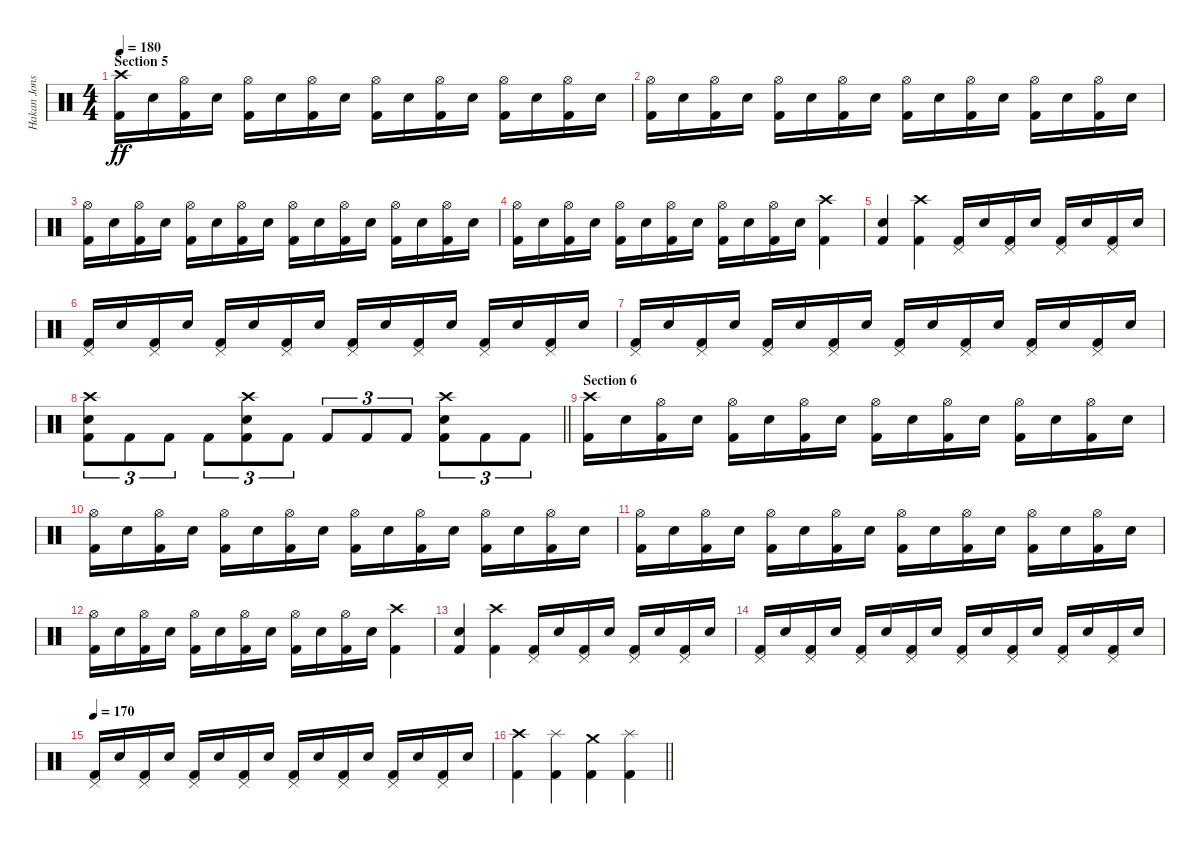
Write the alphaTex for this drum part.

\track ("Hakan Jonsson" "Hakan Jons") {instrument percussion}
\staff {score}
\articulation defaults
\ts (4 4)
\section ("" "Section 5")
\tempo 180
\clef neutral
\ks c
("Crash high (hit)" "Kick (hit) 2").16{dy ff} "Electric Snare (hit)".16 ("Hi-Hat (open)" "Kick (hit) 2").16 "Electric Snare (hit)".16 ("Hi-Hat (open)" "Kick (hit) 2").16 "Electric Snare (hit)".16 ("Hi-Hat (open)" "Kick (hit) 2").16 "Electric Snare (hit)".16 ("Hi-Hat (open)" "Kick (hit) 2").16 "Electric Snare (hit)".16 ("Hi-Hat (open)" "Kick (hit) 2").16 "Electric Snare (hit)".16 ("Hi-Hat (open)" "Kick (hit) 2").16 "Electric Snare (hit)".16 ("Hi-Hat (open)" "Kick (hit) 2").16 "Electric Snare (hit)".16 |
("Hi-Hat (open)" "Kick (hit) 2").16 "Electric Snare (hit)".16 ("Hi-Hat (open)" "Kick (hit) 2").16 "Electric Snare (hit)".16 ("Hi-Hat (open)" "Kick (hit) 2").16 "Electric Snare (hit)".16 ("Hi-Hat (open)" "Kick (hit) 2").16 "Electric Snare (hit)".16 ("Hi-Hat (open)" "Kick (hit) 2").16 "Electric Snare (hit)".16 ("Hi-Hat (open)" "Kick (hit) 2").16 "Electric Snare (hit)".16 ("Hi-Hat (open)" "Kick (hit) 2").16 "Electric Snare (hit)".16 ("Hi-Hat (open)" "Kick (hit) 2").16 "Electric Snare (hit)".16 |
("Hi-Hat (open)" "Kick (hit) 2").16 "Electric Snare (hit)".16 ("Hi-Hat (open)" "Kick (hit) 2").16 "Electric Snare (hit)".16 ("Hi-Hat (open)" "Kick (hit) 2").16 "Electric Snare (hit)".16 ("Hi-Hat (open)" "Kick (hit) 2").16 "Electric Snare (hit)".16 ("Hi-Hat (open)" "Kick (hit) 2").16 "Electric Snare (hit)".16 ("Hi-Hat (open)" "Kick (hit) 2").16 "Electric Snare (hit)".16 ("Hi-Hat (open)" "Kick (hit) 2").16 "Electric Snare (hit)".16 ("Hi-Hat (open)" "Kick (hit) 2").16 "Electric Snare (hit)".16 |
("Hi-Hat (open)" "Kick (hit) 2").16 "Electric Snare (hit)".16 ("Hi-Hat (open)" "Kick (hit) 2").16 "Electric Snare (hit)".16 ("Hi-Hat (open)" "Kick (hit) 2").16 "Electric Snare (hit)".16 ("Hi-Hat (open)" "Kick (hit) 2").16 "Electric Snare (hit)".16 ("Hi-Hat (open)" "Kick (hit) 2").16 "Electric Snare (hit)".16 ("Hi-Hat (open)" "Kick (hit) 2").16 "Electric Snare (hit)".16 ("Crash high (hit)" "Kick (hit) 2").4 |
("Electric Snare (hit)" "Kick (hit) 2").4 ("Crash high (hit)" "Kick (hit) 2").4 ("Pedal Hi-Hat (hit)" "Kick (hit) 2").16 "Electric Snare (hit)".16 ("Pedal Hi-Hat (hit)" "Kick (hit) 2").16 "Electric Snare (hit)".16 ("Pedal Hi-Hat (hit)" "Kick (hit) 2").16 "Electric Snare (hit)".16 ("Pedal Hi-Hat (hit)" "Kick (hit) 2").16 "Electric Snare (hit)".16 |
("Pedal Hi-Hat (hit)" "Kick (hit) 2").16 "Electric Snare (hit)".16 ("Pedal Hi-Hat (hit)" "Kick (hit) 2").16 "Electric Snare (hit)".16 ("Pedal Hi-Hat (hit)" "Kick (hit) 2").16 "Electric Snare (hit)".16 ("Pedal Hi-Hat (hit)" "Kick (hit) 2").16 "Electric Snare (hit)".16 ("Pedal Hi-Hat (hit)" "Kick (hit) 2").16 "Electric Snare (hit)".16 ("Pedal Hi-Hat (hit)" "Kick (hit) 2").16 "Electric Snare (hit)".16 ("Pedal Hi-Hat (hit)" "Kick (hit) 2").16 "Electric Snare (hit)".16 ("Pedal Hi-Hat (hit)" "Kick (hit) 2").16 "Electric Snare (hit)".16 |
("Pedal Hi-Hat (hit)" "Kick (hit) 2").16 "Electric Snare (hit)".16 ("Pedal Hi-Hat (hit)" "Kick (hit) 2").16 "Electric Snare (hit)".16 ("Pedal Hi-Hat (hit)" "Kick (hit) 2").16 "Electric Snare (hit)".16 ("Pedal Hi-Hat (hit)" "Kick (hit) 2").16 "Electric Snare (hit)".16 ("Pedal Hi-Hat (hit)" "Kick (hit) 2").16 "Electric Snare (hit)".16 ("Pedal Hi-Hat (hit)" "Kick (hit) 2").16 "Electric Snare (hit)".16 ("Pedal Hi-Hat (hit)" "Kick (hit) 2").16 "Electric Snare (hit)".16 ("Pedal Hi-Hat (hit)" "Kick (hit) 2").16 "Electric Snare (hit)".16 |
\barLineRight lightlight
("Crash high (hit)" "Electric Snare (hit)" "Kick (hit) 2").8{tu (3 2)} "Kick (hit) 2".8{tu (3 2)} "Kick (hit) 2".8{tu (3 2)} "Kick (hit) 2".8{tu (3 2)} ("Crash high (hit)" "Electric Snare (hit)" "Kick (hit) 2").8{tu (3 2)} "Kick (hit) 2".8{tu (3 2)} "Kick (hit) 2".8{tu (3 2)} "Kick (hit) 2".8{tu (3 2)} "Kick (hit) 2".8{tu (3 2)} ("Crash high (hit)" "Electric Snare (hit)" "Kick (hit) 2").8{tu (3 2)} "Kick (hit) 2".8{tu (3 2)} "Kick (hit) 2".8{tu (3 2)} |
\section ("" "Section 6")
("Crash high (hit)" "Kick (hit) 2").16 "Electric Snare (hit)".16 ("Hi-Hat (open)" "Kick (hit) 2").16 "Electric Snare (hit)".16 ("Hi-Hat (open)" "Kick (hit) 2").16 "Electric Snare (hit)".16 ("Hi-Hat (open)" "Kick (hit) 2").16 "Electric Snare (hit)".16 ("Hi-Hat (open)" "Kick (hit) 2").16 "Electric Snare (hit)".16 ("Hi-Hat (open)" "Kick (hit) 2").16 "Electric Snare (hit)".16 ("Hi-Hat (open)" "Kick (hit) 2").16 "Electric Snare (hit)".16 ("Hi-Hat (open)" "Kick (hit) 2").16 "Electric Snare (hit)".16 |
("Hi-Hat (open)" "Kick (hit) 2").16 "Electric Snare (hit)".16 ("Hi-Hat (open)" "Kick (hit) 2").16 "Electric Snare (hit)".16 ("Hi-Hat (open)" "Kick (hit) 2").16 "Electric Snare (hit)".16 ("Hi-Hat (open)" "Kick (hit) 2").16 "Electric Snare (hit)".16 ("Hi-Hat (open)" "Kick (hit) 2").16 "Electric Snare (hit)".16 ("Hi-Hat (open)" "Kick (hit) 2").16 "Electric Snare (hit)".16 ("Hi-Hat (open)" "Kick (hit) 2").16 "Electric Snare (hit)".16 ("Hi-Hat (open)" "Kick (hit) 2").16 "Electric Snare (hit)".16 |
("Hi-Hat (open)" "Kick (hit) 2").16 "Electric Snare (hit)".16 ("Hi-Hat (open)" "Kick (hit) 2").16 "Electric Snare (hit)".16 ("Hi-Hat (open)" "Kick (hit) 2").16 "Electric Snare (hit)".16 ("Hi-Hat (open)" "Kick (hit) 2").16 "Electric Snare (hit)".16 ("Hi-Hat (open)" "Kick (hit) 2").16 "Electric Snare (hit)".16 ("Hi-Hat (open)" "Kick (hit) 2").16 "Electric Snare (hit)".16 ("Hi-Hat (open)" "Kick (hit) 2").16 "Electric Snare (hit)".16 ("Hi-Hat (open)" "Kick (hit) 2").16 "Electric Snare (hit)".16 |
("Hi-Hat (open)" "Kick (hit) 2").16 "Electric Snare (hit)".16 ("Hi-Hat (open)" "Kick (hit) 2").16 "Electric Snare (hit)".16 ("Hi-Hat (open)" "Kick (hit) 2").16 "Electric Snare (hit)".16 ("Hi-Hat (open)" "Kick (hit) 2").16 "Electric Snare (hit)".16 ("Hi-Hat (open)" "Kick (hit) 2").16 "Electric Snare (hit)".16 ("Hi-Hat (open)" "Kick (hit) 2").16 "Electric Snare (hit)".16 ("Crash high (hit)" "Kick (hit) 2").4 |
("Electric Snare (hit)" "Kick (hit) 2").4 ("Crash high (hit)" "Kick (hit) 2").4 ("Pedal Hi-Hat (hit)" "Kick (hit) 2").16 "Electric Snare (hit)".16 ("Pedal Hi-Hat (hit)" "Kick (hit) 2").16 "Electric Snare (hit)".16 ("Pedal Hi-Hat (hit)" "Kick (hit) 2").16 "Electric Snare (hit)".16 ("Pedal Hi-Hat (hit)" "Kick (hit) 2").16 "Electric Snare (hit)".16 |
("Pedal Hi-Hat (hit)" "Kick (hit) 2").16 "Electric Snare (hit)".16 ("Pedal Hi-Hat (hit)" "Kick (hit) 2").16 "Electric Snare (hit)".16 ("Pedal Hi-Hat (hit)" "Kick (hit) 2").16 "Electric Snare (hit)".16 ("Pedal Hi-Hat (hit)" "Kick (hit) 2").16 "Electric Snare (hit)".16 ("Pedal Hi-Hat (hit)" "Kick (hit) 2").16 "Electric Snare (hit)".16 ("Pedal Hi-Hat (hit)" "Kick (hit) 2").16 "Electric Snare (hit)".16 ("Pedal Hi-Hat (hit)" "Kick (hit) 2").16 "Electric Snare (hit)".16 ("Pedal Hi-Hat (hit)" "Kick (hit) 2").16 "Electric Snare (hit)".16 |
\tempo 170
("Pedal Hi-Hat (hit)" "Kick (hit) 2").16 "Electric Snare (hit)".16 ("Pedal Hi-Hat (hit)" "Kick (hit) 2").16 "Electric Snare (hit)".16 ("Pedal Hi-Hat (hit)" "Kick (hit) 2").16 "Electric Snare (hit)".16 ("Pedal Hi-Hat (hit)" "Kick (hit) 2").16 "Electric Snare (hit)".16 ("Pedal Hi-Hat (hit)" "Kick (hit) 2").16 "Electric Snare (hit)".16 ("Pedal Hi-Hat (hit)" "Kick (hit) 2").16 "Electric Snare (hit)".16 ("Pedal Hi-Hat (hit)" "Kick (hit) 2").16 "Electric Snare (hit)".16 ("Pedal Hi-Hat (hit)" "Kick (hit) 2").16 "Electric Snare (hit)".16 |
\barLineRight lightlight
("Crash high (hit)" "Kick (hit) 2").4 ("Splash (hit)" "Kick (hit) 2").4 ("Crash medium (hit)" "Kick (hit) 2").4 ("Splash (hit)" "Kick (hit) 2").4
